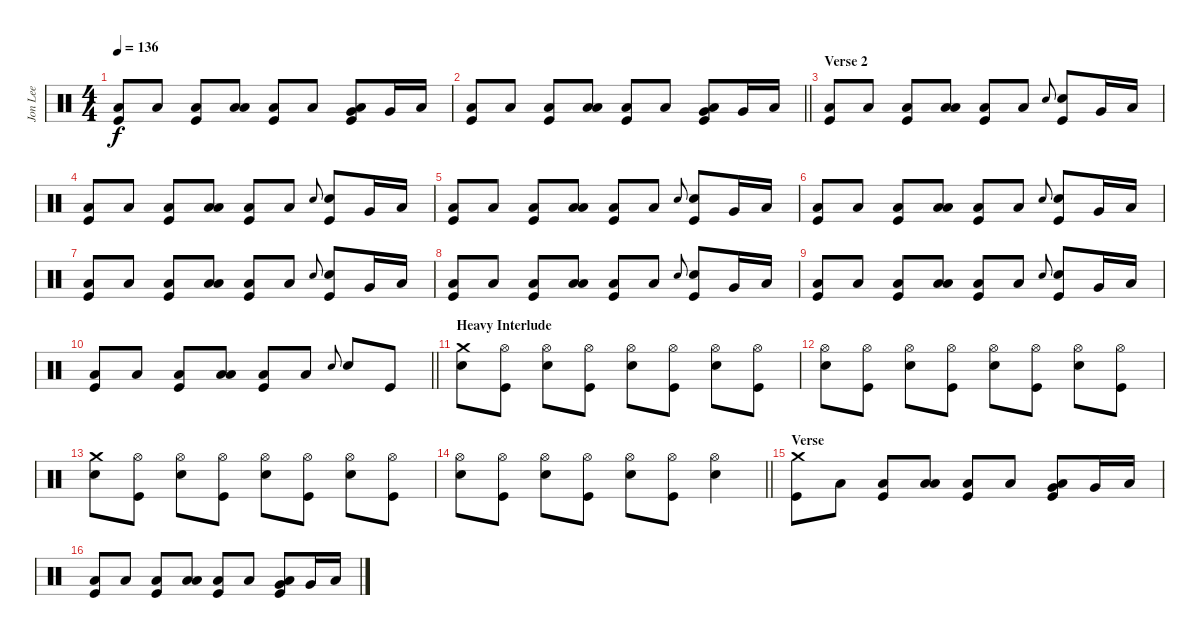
\track ("Jon Lee" "Jon Lee") {instrument percussion}
\staff {score}
\articulation defaults
\ts (4 4)
\tempo 136
\clef neutral
\ks c
("Low Floor Tom (hit)" "Kick (hit)").8{dy f} "Low Floor Tom (hit)".8 ("Low Floor Tom (hit)" "Kick (hit)").8 ("Low Floor Tom (hit)" "Low Tom (hit)").8 ("Low Floor Tom (hit)" "Kick (hit)").8 "Low Floor Tom (hit)".8 ("Low Floor Tom (hit)" "Very Low Tom (hit)" "Kick (hit)").8 "Very Low Tom (hit)".16 "Low Tom (hit)".16 |
\barLineRight lightlight
("Low Floor Tom (hit)" "Kick (hit)").8 "Low Floor Tom (hit)".8 ("Low Floor Tom (hit)" "Kick (hit)").8 ("Low Floor Tom (hit)" "Low Tom (hit)").8 ("Low Floor Tom (hit)" "Kick (hit)").8 "Low Floor Tom (hit)".8 ("Low Floor Tom (hit)" "Very Low Tom (hit)" "Kick (hit)").8 "Very Low Tom (hit)".16 "Low Tom (hit)".16 |
\section ("" "Verse 2")
("Low Floor Tom (hit)" "Kick (hit)").8 "Low Floor Tom (hit)".8 ("Low Floor Tom (hit)" "Kick (hit)").8 ("Low Floor Tom (hit)" "Low Tom (hit)").8 ("Low Floor Tom (hit)" "Kick (hit)").8 "Low Floor Tom (hit)".8 "Electric Snare (hit)".8{gr onbeat} ("Electric Snare (hit)" "Kick (hit)").8 "Very Low Tom (hit)".16 "Low Tom (hit)".16 |
("Low Floor Tom (hit)" "Kick (hit)").8 "Low Floor Tom (hit)".8 ("Low Floor Tom (hit)" "Kick (hit)").8 ("Low Floor Tom (hit)" "Low Tom (hit)").8 ("Low Floor Tom (hit)" "Kick (hit)").8 "Low Floor Tom (hit)".8 "Electric Snare (hit)".8{gr onbeat} ("Electric Snare (hit)" "Kick (hit)").8 "Very Low Tom (hit)".16 "Low Tom (hit)".16 |
("Low Floor Tom (hit)" "Kick (hit)").8 "Low Floor Tom (hit)".8 ("Low Floor Tom (hit)" "Kick (hit)").8 ("Low Floor Tom (hit)" "Low Tom (hit)").8 ("Low Floor Tom (hit)" "Kick (hit)").8 "Low Floor Tom (hit)".8 "Electric Snare (hit)".8{gr onbeat} ("Electric Snare (hit)" "Kick (hit)").8 "Very Low Tom (hit)".16 "Low Tom (hit)".16 |
("Low Floor Tom (hit)" "Kick (hit)").8 "Low Floor Tom (hit)".8 ("Low Floor Tom (hit)" "Kick (hit)").8 ("Low Floor Tom (hit)" "Low Tom (hit)").8 ("Low Floor Tom (hit)" "Kick (hit)").8 "Low Floor Tom (hit)".8 "Electric Snare (hit)".8{gr onbeat} ("Electric Snare (hit)" "Kick (hit)").8 "Very Low Tom (hit)".16 "Low Tom (hit)".16 |
("Low Floor Tom (hit)" "Kick (hit)").8 "Low Floor Tom (hit)".8 ("Low Floor Tom (hit)" "Kick (hit)").8 ("Low Floor Tom (hit)" "Low Tom (hit)").8 ("Low Floor Tom (hit)" "Kick (hit)").8 "Low Floor Tom (hit)".8 "Electric Snare (hit)".8{gr onbeat} ("Electric Snare (hit)" "Kick (hit)").8 "Very Low Tom (hit)".16 "Low Tom (hit)".16 |
("Low Floor Tom (hit)" "Kick (hit)").8 "Low Floor Tom (hit)".8 ("Low Floor Tom (hit)" "Kick (hit)").8 ("Low Floor Tom (hit)" "Low Tom (hit)").8 ("Low Floor Tom (hit)" "Kick (hit)").8 "Low Floor Tom (hit)".8 "Electric Snare (hit)".8{gr onbeat} ("Electric Snare (hit)" "Kick (hit)").8 "Very Low Tom (hit)".16 "Low Tom (hit)".16 |
("Low Floor Tom (hit)" "Kick (hit)").8 "Low Floor Tom (hit)".8 ("Low Floor Tom (hit)" "Kick (hit)").8 ("Low Floor Tom (hit)" "Low Tom (hit)").8 ("Low Floor Tom (hit)" "Kick (hit)").8 "Low Floor Tom (hit)".8 "Electric Snare (hit)".8{gr onbeat} ("Electric Snare (hit)" "Kick (hit)").8 "Very Low Tom (hit)".16 "Low Tom (hit)".16 |
\barLineRight lightlight
("Low Floor Tom (hit)" "Kick (hit)").8 "Low Floor Tom (hit)".8 ("Low Floor Tom (hit)" "Kick (hit)").8 ("Low Floor Tom (hit)" "Low Tom (hit)").8 ("Low Floor Tom (hit)" "Kick (hit)").8 "Low Floor Tom (hit)".8 "Electric Snare (hit)".8{gr onbeat} "Electric Snare (hit)".8 "Kick (hit)".8 |
\section ("" "Heavy Interlude")
("Crash medium (hit)" "Electric Snare (hit)").8 ("Hi-Hat (open)" "Kick (hit)").8 ("Hi-Hat (open)" "Electric Snare (hit)").8 ("Hi-Hat (open)" "Kick (hit)").8 ("Hi-Hat (open)" "Electric Snare (hit)").8 ("Hi-Hat (open)" "Kick (hit)").8 ("Hi-Hat (open)" "Electric Snare (hit)").8 ("Hi-Hat (open)" "Kick (hit)").8 |
("Hi-Hat (open)" "Electric Snare (hit)").8 ("Hi-Hat (open)" "Kick (hit)").8 ("Hi-Hat (open)" "Electric Snare (hit)").8 ("Hi-Hat (open)" "Kick (hit)").8 ("Hi-Hat (open)" "Electric Snare (hit)").8 ("Hi-Hat (open)" "Kick (hit)").8 ("Hi-Hat (open)" "Electric Snare (hit)").8 ("Hi-Hat (open)" "Kick (hit)").8 |
("Crash medium (hit)" "Electric Snare (hit)").8 ("Hi-Hat (open)" "Kick (hit)").8 ("Hi-Hat (open)" "Electric Snare (hit)").8 ("Hi-Hat (open)" "Kick (hit)").8 ("Hi-Hat (open)" "Electric Snare (hit)").8 ("Hi-Hat (open)" "Kick (hit)").8 ("Hi-Hat (open)" "Electric Snare (hit)").8 ("Hi-Hat (open)" "Kick (hit)").8 |
\barLineRight lightlight
("Hi-Hat (open)" "Electric Snare (hit)").8 ("Hi-Hat (open)" "Kick (hit)").8 ("Hi-Hat (open)" "Electric Snare (hit)").8 ("Hi-Hat (open)" "Kick (hit)").8 ("Hi-Hat (open)" "Electric Snare (hit)").8 ("Hi-Hat (open)" "Kick (hit)").8 ("Hi-Hat (open)" "Electric Snare (hit)").4 |
\section ("" "Verse")
("Crash medium (hit)" "Kick (hit)").8 "Low Floor Tom (hit)".8 ("Low Floor Tom (hit)" "Kick (hit)").8 ("Low Floor Tom (hit)" "Low Tom (hit)").8 ("Low Floor Tom (hit)" "Kick (hit)").8 "Low Floor Tom (hit)".8 ("Low Floor Tom (hit)" "Very Low Tom (hit)" "Kick (hit)").8 "Very Low Tom (hit)".16 "Low Tom (hit)".16 |
("Low Floor Tom (hit)" "Kick (hit)").8 "Low Floor Tom (hit)".8 ("Low Floor Tom (hit)" "Kick (hit)").8 ("Low Floor Tom (hit)" "Low Tom (hit)").8 ("Low Floor Tom (hit)" "Kick (hit)").8 "Low Floor Tom (hit)".8 ("Low Floor Tom (hit)" "Very Low Tom (hit)" "Kick (hit)").8 "Very Low Tom (hit)".16 "Low Tom (hit)".16
